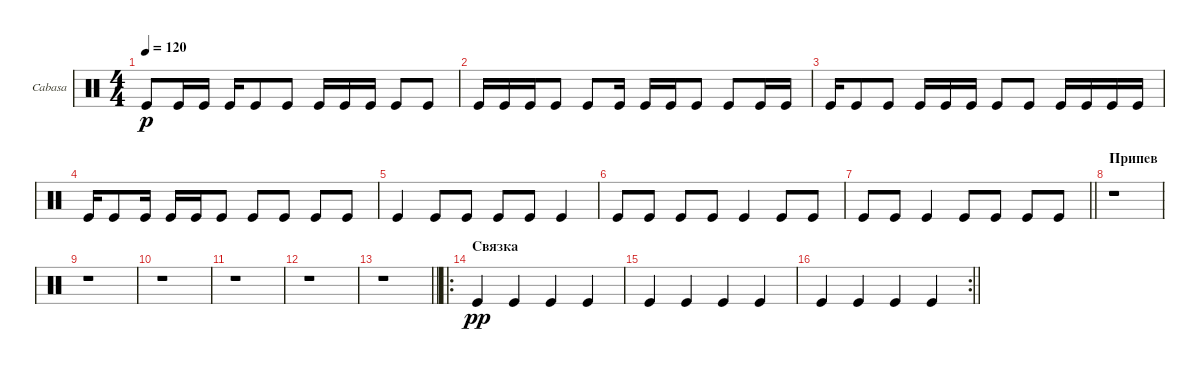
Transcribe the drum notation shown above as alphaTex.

\bracketExtendMode groupsimilarinstruments
\firstSystemTrackNameOrientation horizontal
\otherSystemsTrackNameOrientation horizontal
\track ("Cabasa" "Cabasa") {instrument percussion}
\staff {score}
\articulation defaults
\ts (4 4)
\tempo 120
\clef neutral
\ks c "Kick (hit)".8{dy p} "Kick (hit)".16 "Kick (hit)".16 "Kick (hit)".16 "Kick (hit)".8 "Kick (hit)".8 "Kick (hit)".16 "Kick (hit)".16 "Kick (hit)".16 "Kick (hit)".8 "Kick (hit)".8
|
"Kick (hit)".16 "Kick (hit)".16 "Kick (hit)".16 "Kick (hit)".8 "Kick (hit)".8 "Kick (hit)".16 "Kick (hit)".16 "Kick (hit)".16 "Kick (hit)".8 "Kick (hit)".8 "Kick (hit)".16 "Kick (hit)".16 |
"Kick (hit)".16 "Kick (hit)".8 "Kick (hit)".8 "Kick (hit)".16 "Kick (hit)".16 "Kick (hit)".16 "Kick (hit)".8 "Kick (hit)".8 "Kick (hit)".16 "Kick (hit)".16 "Kick (hit)".16 "Kick (hit)".16 |
"Kick (hit)".16 "Kick (hit)".8 "Kick (hit)".16 "Kick (hit)".16 "Kick (hit)".16 "Kick (hit)".8 "Kick (hit)".8 "Kick (hit)".8 "Kick (hit)".8 "Kick (hit)".8 |
"Kick (hit)".4 "Kick (hit)".8 "Kick (hit)".8 "Kick (hit)".8 "Kick (hit)".8 "Kick (hit)".4 |
"Kick (hit)".8 "Kick (hit)".8 "Kick (hit)".8 "Kick (hit)".8 "Kick (hit)".4 "Kick (hit)".8 "Kick (hit)".8 |
\barLineRight lightlight "Kick (hit)".8 "Kick (hit)".8 "Kick (hit)".4 "Kick (hit)".8 "Kick (hit)".8 "Kick (hit)".8 "Kick (hit)".8
|
\section ("" "Припев")
r.1 |
r.1 |
r.1 |
r.1 |
r.1 |
\barLineRight lightlight
r.1 |
\ro
\section ("" "Связка")
"Kick (hit)".4{dy pp} "Kick (hit)".4 "Kick (hit)".4 "Kick (hit)".4 |
"Kick (hit)".4 "Kick (hit)".4 "Kick (hit)".4 "Kick (hit)".4 |
\rc 2
\barLineRight lightlight "Kick (hit)".4 "Kick (hit)".4 "Kick (hit)".4 "Kick (hit)".4
